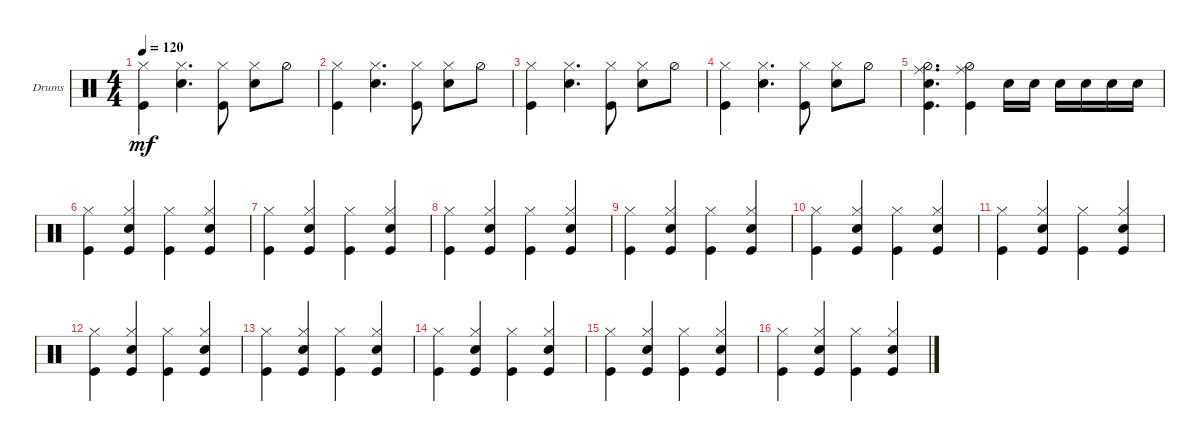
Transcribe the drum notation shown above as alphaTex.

\defaultSystemsLayout 4
\bracketExtendMode groupsimilarinstruments
\firstSystemTrackNameOrientation horizontal
\otherSystemsTrackNameOrientation horizontal
\track ("Drumkit" "Drums") {instrument percussion}
\staff {score}
\articulation defaults
\ts (4 4)
\tempo 120
\clef neutral
\ks c
("Kick (hit)" "Hi-Hat (closed)").4{dy mf} ("Snare (hit) 2" "Hi-Hat (closed)").4{d} ("Kick (hit)" "Hi-Hat (closed)").8 ("Snare (hit) 2" "Hi-Hat (closed)").8 "Hi-Hat (half)".8 |
("Kick (hit)" "Hi-Hat (closed)").4 ("Snare (hit) 2" "Hi-Hat (closed)").4{d} ("Kick (hit)" "Hi-Hat (closed)").8 ("Snare (hit) 2" "Hi-Hat (closed)").8 "Hi-Hat (half)".8 |
("Kick (hit)" "Hi-Hat (closed)").4 ("Snare (hit) 2" "Hi-Hat (closed)").4{d} ("Kick (hit)" "Hi-Hat (closed)").8 ("Snare (hit) 2" "Hi-Hat (closed)").8 "Hi-Hat (half)".8 |
("Kick (hit)" "Hi-Hat (closed)").4 ("Snare (hit) 2" "Hi-Hat (closed)").4{d} ("Kick (hit)" "Hi-Hat (closed)").8 ("Snare (hit) 2" "Hi-Hat (closed)").8 "Hi-Hat (half)".8 |
("Kick (hit)" "Ride (middle)" "Snare (hit) 2" "Hi-Hat (half)").4{d} ("Kick (hit)" "Ride (middle)" "Hi-Hat (half)").4 "Snare (hit) 2".16 "Snare (hit) 2".16 "Snare (hit) 2".16 "Snare (hit) 2".16 "Snare (hit) 2".16 "Snare (hit) 2".16 |
("Kick (hit)" "Hi-Hat (closed)").4 ("Kick (hit)" "Snare (hit) 2" "Hi-Hat (closed)").4 ("Kick (hit)" "Hi-Hat (closed)").4 ("Kick (hit)" "Snare (hit) 2" "Hi-Hat (closed)").4 |
("Kick (hit)" "Hi-Hat (closed)").4 ("Kick (hit)" "Hi-Hat (closed)" "Snare (hit) 2").4 ("Kick (hit)" "Hi-Hat (closed)").4 ("Kick (hit)" "Hi-Hat (closed)" "Snare (hit) 2").4 |
("Kick (hit)" "Hi-Hat (closed)").4 ("Kick (hit)" "Snare (hit) 2" "Hi-Hat (closed)").4 ("Kick (hit)" "Hi-Hat (closed)").4 ("Kick (hit)" "Snare (hit) 2" "Hi-Hat (closed)").4 |
("Kick (hit)" "Hi-Hat (closed)").4 ("Kick (hit)" "Hi-Hat (closed)" "Snare (hit) 2").4 ("Kick (hit)" "Hi-Hat (closed)").4 ("Kick (hit)" "Hi-Hat (closed)" "Snare (hit) 2").4 |
("Kick (hit)" "Hi-Hat (closed)").4 ("Kick (hit)" "Snare (hit) 2" "Hi-Hat (closed)").4 ("Kick (hit)" "Hi-Hat (closed)").4 ("Kick (hit)" "Snare (hit) 2" "Hi-Hat (closed)").4 |
("Kick (hit)" "Hi-Hat (closed)").4 ("Kick (hit)" "Hi-Hat (closed)" "Snare (hit) 2").4 ("Kick (hit)" "Hi-Hat (closed)").4 ("Kick (hit)" "Hi-Hat (closed)" "Snare (hit) 2").4 |
("Kick (hit)" "Hi-Hat (closed)").4 ("Kick (hit)" "Snare (hit) 2" "Hi-Hat (closed)").4 ("Kick (hit)" "Hi-Hat (closed)").4 ("Kick (hit)" "Snare (hit) 2" "Hi-Hat (closed)").4 |
("Kick (hit)" "Hi-Hat (closed)").4 ("Kick (hit)" "Hi-Hat (closed)" "Snare (hit) 2").4 ("Kick (hit)" "Hi-Hat (closed)").4 ("Kick (hit)" "Hi-Hat (closed)" "Snare (hit) 2").4 |
("Kick (hit)" "Hi-Hat (closed)").4 ("Kick (hit)" "Snare (hit) 2" "Hi-Hat (closed)").4 ("Kick (hit)" "Hi-Hat (closed)").4 ("Kick (hit)" "Snare (hit) 2" "Hi-Hat (closed)").4 |
("Kick (hit)" "Hi-Hat (closed)").4 ("Kick (hit)" "Hi-Hat (closed)" "Snare (hit) 2").4 ("Kick (hit)" "Hi-Hat (closed)").4 ("Kick (hit)" "Hi-Hat (closed)" "Snare (hit) 2").4 |
("Kick (hit)" "Hi-Hat (closed)").4 ("Kick (hit)" "Snare (hit) 2" "Hi-Hat (closed)").4 ("Kick (hit)" "Hi-Hat (closed)").4 ("Kick (hit)" "Snare (hit) 2" "Hi-Hat (closed)").4
